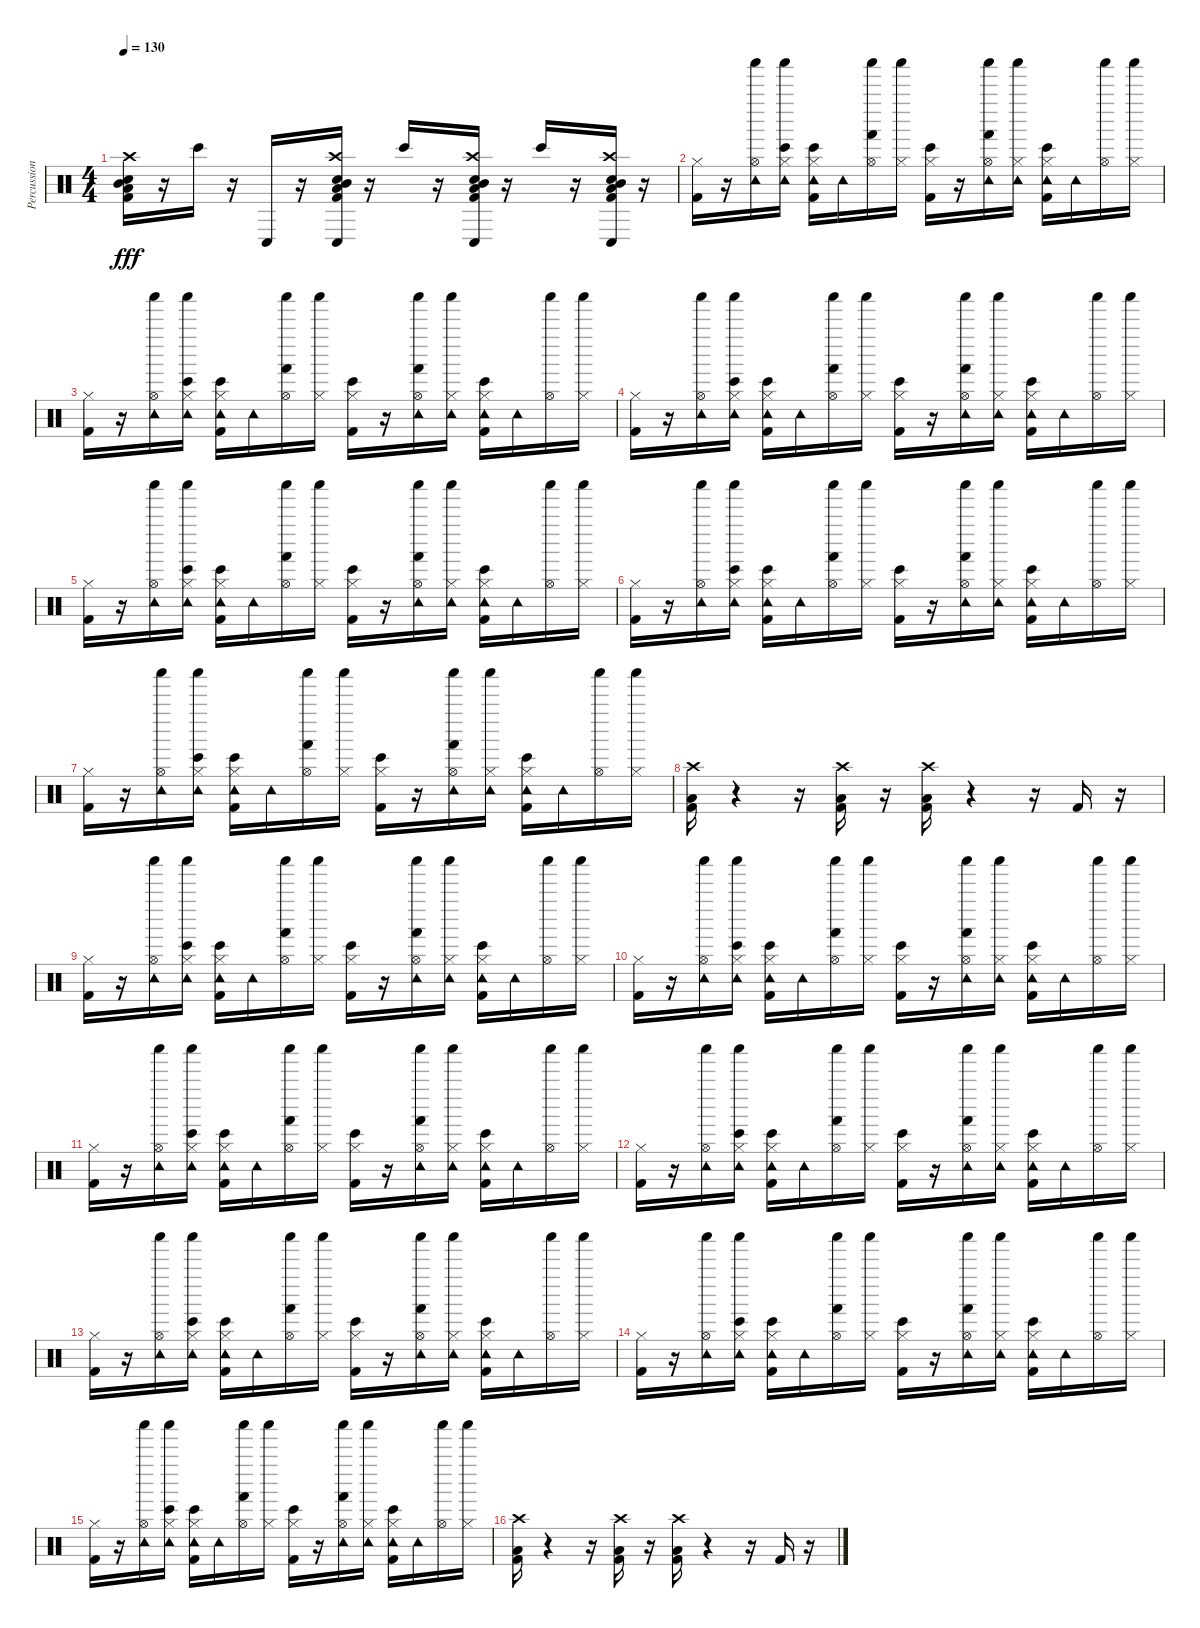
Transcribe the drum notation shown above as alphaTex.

\track ("Percussions" "Percussion") {instrument percussion}
\staff {score}
\articulation defaults
\ts (4 4)
\tempo 130
\clef neutral
\ks c
("Snare (hit) 2" "Crash high (hit)" "Mid Tom (hit)" "Low Tom (hit)" "Kick (hit) 2").16{dy fff} r.16 "Bongo High (hit)".16 r.16 "Conga low (hit)".16 r.16 ("Snare (hit) 2" "Crash high (hit)" "Conga low (hit)" "Mid Tom (hit)" "Low Tom (hit)" "Kick (hit) 2").16 r.16 "Bongo High (hit)".16 r.16 ("Snare (hit) 2" "Crash high (hit)" "Conga low (hit)" "Mid Tom (hit)" "Low Tom (hit)" "Kick (hit) 2").16 r.16 "Bongo High (hit)".16 r.16 ("Snare (hit) 2" "Crash high (hit)" "Conga low (hit)" "Mid Tom (hit)" "Kick (hit) 2" "Low Tom (hit)").16 r.16 |
("Hi-Hat (closed)" "Kick (hit) 2").16 r.16 ("Hi-Hat (open)" "Tambourine (hit)" "Shaker (hit)").16 ("Tambourine (hit)" "Shaker (hit)" "Bongo High (hit)" "Hi-Hat (closed)").16 ("Hi-Hat (closed)" "Kick (hit) 2" "Tambourine (hit)" "Bongo High (hit)").16 "Tambourine (hit)".16 ("Hi-Hat (open)" "Shaker (hit)" "Hand (hit)").16 ("Shaker (hit)" "Hi-Hat (closed)").16 ("Hi-Hat (closed)" "Kick (hit) 2" "Bongo High (hit)").16 r.16 ("Hi-Hat (open)" "Tambourine (hit)" "Shaker (hit)" "Hand (hit)").16 ("Tambourine (hit)" "Shaker (hit)" "Hi-Hat (closed)").16 ("Hi-Hat (closed)" "Kick (hit) 2" "Tambourine (hit)" "Bongo High (hit)").16 "Tambourine (hit)".16 ("Hi-Hat (open)" "Shaker (hit)").16 ("Shaker (hit)" "Hi-Hat (closed)").16 |
("Hi-Hat (closed)" "Kick (hit) 2").16 r.16 ("Hi-Hat (open)" "Tambourine (hit)" "Shaker (hit)").16 ("Tambourine (hit)" "Shaker (hit)" "Bongo High (hit)" "Hi-Hat (closed)").16 ("Hi-Hat (closed)" "Kick (hit) 2" "Tambourine (hit)" "Bongo High (hit)").16 "Tambourine (hit)".16 ("Hi-Hat (open)" "Shaker (hit)" "Hand (hit)").16 ("Shaker (hit)" "Hi-Hat (closed)").16 ("Hi-Hat (closed)" "Kick (hit) 2" "Bongo High (hit)").16 r.16 ("Hi-Hat (open)" "Tambourine (hit)" "Shaker (hit)" "Hand (hit)").16 ("Tambourine (hit)" "Shaker (hit)" "Hi-Hat (closed)").16 ("Hi-Hat (closed)" "Kick (hit) 2" "Tambourine (hit)" "Bongo High (hit)").16 "Tambourine (hit)".16 ("Hi-Hat (open)" "Shaker (hit)").16 ("Shaker (hit)" "Hi-Hat (closed)").16 |
("Hi-Hat (closed)" "Kick (hit) 2").16 r.16 ("Hi-Hat (open)" "Tambourine (hit)" "Shaker (hit)").16 ("Tambourine (hit)" "Shaker (hit)" "Bongo High (hit)" "Hi-Hat (closed)").16 ("Hi-Hat (closed)" "Kick (hit) 2" "Tambourine (hit)" "Bongo High (hit)").16 "Tambourine (hit)".16 ("Hi-Hat (open)" "Shaker (hit)" "Hand (hit)").16 ("Shaker (hit)" "Hi-Hat (closed)").16 ("Hi-Hat (closed)" "Kick (hit) 2" "Bongo High (hit)").16 r.16 ("Hi-Hat (open)" "Tambourine (hit)" "Shaker (hit)" "Hand (hit)").16 ("Tambourine (hit)" "Shaker (hit)" "Hi-Hat (closed)").16 ("Hi-Hat (closed)" "Kick (hit) 2" "Tambourine (hit)" "Bongo High (hit)").16 "Tambourine (hit)".16 ("Hi-Hat (open)" "Shaker (hit)").16 ("Shaker (hit)" "Hi-Hat (closed)").16 |
("Hi-Hat (closed)" "Kick (hit) 2").16 r.16 ("Hi-Hat (open)" "Tambourine (hit)" "Shaker (hit)").16 ("Tambourine (hit)" "Shaker (hit)" "Bongo High (hit)" "Hi-Hat (closed)").16 ("Hi-Hat (closed)" "Kick (hit) 2" "Tambourine (hit)" "Bongo High (hit)").16 "Tambourine (hit)".16 ("Hi-Hat (open)" "Shaker (hit)" "Hand (hit)").16 ("Shaker (hit)" "Hi-Hat (closed)").16 ("Hi-Hat (closed)" "Kick (hit) 2" "Bongo High (hit)").16 r.16 ("Hi-Hat (open)" "Tambourine (hit)" "Shaker (hit)" "Hand (hit)").16 ("Tambourine (hit)" "Shaker (hit)" "Hi-Hat (closed)").16 ("Hi-Hat (closed)" "Kick (hit) 2" "Tambourine (hit)" "Bongo High (hit)").16 "Tambourine (hit)".16 ("Hi-Hat (open)" "Shaker (hit)").16 ("Shaker (hit)" "Hi-Hat (closed)").16 |
("Hi-Hat (closed)" "Kick (hit) 2").16 r.16 ("Hi-Hat (open)" "Tambourine (hit)" "Shaker (hit)").16 ("Tambourine (hit)" "Shaker (hit)" "Bongo High (hit)" "Hi-Hat (closed)").16 ("Hi-Hat (closed)" "Kick (hit) 2" "Tambourine (hit)" "Bongo High (hit)").16 "Tambourine (hit)".16 ("Hi-Hat (open)" "Shaker (hit)" "Hand (hit)").16 ("Shaker (hit)" "Hi-Hat (closed)").16 ("Hi-Hat (closed)" "Kick (hit) 2" "Bongo High (hit)").16 r.16 ("Hi-Hat (open)" "Tambourine (hit)" "Shaker (hit)" "Hand (hit)").16 ("Tambourine (hit)" "Shaker (hit)" "Hi-Hat (closed)").16 ("Hi-Hat (closed)" "Kick (hit) 2" "Tambourine (hit)" "Bongo High (hit)").16 "Tambourine (hit)".16 ("Hi-Hat (open)" "Shaker (hit)").16 ("Shaker (hit)" "Hi-Hat (closed)").16 |
("Hi-Hat (closed)" "Kick (hit) 2").16 r.16 ("Hi-Hat (open)" "Tambourine (hit)" "Shaker (hit)").16 ("Tambourine (hit)" "Shaker (hit)" "Bongo High (hit)" "Hi-Hat (closed)").16 ("Hi-Hat (closed)" "Kick (hit) 2" "Tambourine (hit)" "Bongo High (hit)").16 "Tambourine (hit)".16 ("Hi-Hat (open)" "Shaker (hit)" "Hand (hit)").16 ("Shaker (hit)" "Hi-Hat (closed)").16 ("Hi-Hat (closed)" "Kick (hit) 2" "Bongo High (hit)").16 r.16 ("Hi-Hat (open)" "Tambourine (hit)" "Shaker (hit)" "Hand (hit)").16 ("Tambourine (hit)" "Shaker (hit)" "Hi-Hat (closed)").16 ("Hi-Hat (closed)" "Kick (hit) 2" "Tambourine (hit)" "Bongo High (hit)").16 "Tambourine (hit)".16 ("Hi-Hat (open)" "Shaker (hit)").16 ("Shaker (hit)" "Hi-Hat (closed)").16 |
("Crash high (hit)" "Low Tom (hit)" "Kick (hit) 2").16 r.4 r.16 ("Crash high (hit)" "Low Tom (hit)" "Kick (hit) 2").16 r.16 ("Crash high (hit)" "Low Tom (hit)" "Kick (hit) 2").16 r.4 r.16 "Kick (hit) 2".16 r.16 |
("Hi-Hat (closed)" "Kick (hit) 2").16 r.16 ("Hi-Hat (open)" "Tambourine (hit)" "Shaker (hit)").16 ("Tambourine (hit)" "Shaker (hit)" "Bongo High (hit)" "Hi-Hat (closed)").16 ("Hi-Hat (closed)" "Kick (hit) 2" "Tambourine (hit)" "Bongo High (hit)").16 "Tambourine (hit)".16 ("Hi-Hat (open)" "Shaker (hit)" "Hand (hit)").16 ("Shaker (hit)" "Hi-Hat (closed)").16 ("Hi-Hat (closed)" "Kick (hit) 2" "Bongo High (hit)").16 r.16 ("Hi-Hat (open)" "Tambourine (hit)" "Shaker (hit)" "Hand (hit)").16 ("Tambourine (hit)" "Shaker (hit)" "Hi-Hat (closed)").16 ("Hi-Hat (closed)" "Kick (hit) 2" "Tambourine (hit)" "Bongo High (hit)").16 "Tambourine (hit)".16 ("Hi-Hat (open)" "Shaker (hit)").16 ("Shaker (hit)" "Hi-Hat (closed)").16 |
("Hi-Hat (closed)" "Kick (hit) 2").16 r.16 ("Hi-Hat (open)" "Tambourine (hit)" "Shaker (hit)").16 ("Tambourine (hit)" "Shaker (hit)" "Bongo High (hit)" "Hi-Hat (closed)").16 ("Hi-Hat (closed)" "Kick (hit) 2" "Tambourine (hit)" "Bongo High (hit)").16 "Tambourine (hit)".16 ("Hi-Hat (open)" "Shaker (hit)" "Hand (hit)").16 ("Shaker (hit)" "Hi-Hat (closed)").16 ("Hi-Hat (closed)" "Kick (hit) 2" "Bongo High (hit)").16 r.16 ("Hi-Hat (open)" "Tambourine (hit)" "Shaker (hit)" "Hand (hit)").16 ("Tambourine (hit)" "Shaker (hit)" "Hi-Hat (closed)").16 ("Hi-Hat (closed)" "Kick (hit) 2" "Tambourine (hit)" "Bongo High (hit)").16 "Tambourine (hit)".16 ("Hi-Hat (open)" "Shaker (hit)").16 ("Shaker (hit)" "Hi-Hat (closed)").16 |
("Hi-Hat (closed)" "Kick (hit) 2").16 r.16 ("Hi-Hat (open)" "Tambourine (hit)" "Shaker (hit)").16 ("Tambourine (hit)" "Shaker (hit)" "Bongo High (hit)" "Hi-Hat (closed)").16 ("Hi-Hat (closed)" "Kick (hit) 2" "Tambourine (hit)" "Bongo High (hit)").16 "Tambourine (hit)".16 ("Hi-Hat (open)" "Shaker (hit)" "Hand (hit)").16 ("Shaker (hit)" "Hi-Hat (closed)").16 ("Hi-Hat (closed)" "Kick (hit) 2" "Bongo High (hit)").16 r.16 ("Hi-Hat (open)" "Tambourine (hit)" "Shaker (hit)" "Hand (hit)").16 ("Tambourine (hit)" "Shaker (hit)" "Hi-Hat (closed)").16 ("Hi-Hat (closed)" "Kick (hit) 2" "Tambourine (hit)" "Bongo High (hit)").16 "Tambourine (hit)".16 ("Hi-Hat (open)" "Shaker (hit)").16 ("Shaker (hit)" "Hi-Hat (closed)").16 |
("Hi-Hat (closed)" "Kick (hit) 2").16 r.16 ("Hi-Hat (open)" "Tambourine (hit)" "Shaker (hit)").16 ("Tambourine (hit)" "Shaker (hit)" "Bongo High (hit)" "Hi-Hat (closed)").16 ("Hi-Hat (closed)" "Kick (hit) 2" "Tambourine (hit)" "Bongo High (hit)").16 "Tambourine (hit)".16 ("Hi-Hat (open)" "Shaker (hit)" "Hand (hit)").16 ("Shaker (hit)" "Hi-Hat (closed)").16 ("Hi-Hat (closed)" "Kick (hit) 2" "Bongo High (hit)").16 r.16 ("Hi-Hat (open)" "Tambourine (hit)" "Shaker (hit)" "Hand (hit)").16 ("Tambourine (hit)" "Shaker (hit)" "Hi-Hat (closed)").16 ("Hi-Hat (closed)" "Kick (hit) 2" "Tambourine (hit)" "Bongo High (hit)").16 "Tambourine (hit)".16 ("Hi-Hat (open)" "Shaker (hit)").16 ("Shaker (hit)" "Hi-Hat (closed)").16 |
("Hi-Hat (closed)" "Kick (hit) 2").16 r.16 ("Hi-Hat (open)" "Tambourine (hit)" "Shaker (hit)").16 ("Tambourine (hit)" "Shaker (hit)" "Bongo High (hit)" "Hi-Hat (closed)").16 ("Hi-Hat (closed)" "Kick (hit) 2" "Tambourine (hit)" "Bongo High (hit)").16 "Tambourine (hit)".16 ("Hi-Hat (open)" "Shaker (hit)" "Hand (hit)").16 ("Shaker (hit)" "Hi-Hat (closed)").16 ("Hi-Hat (closed)" "Kick (hit) 2" "Bongo High (hit)").16 r.16 ("Hi-Hat (open)" "Tambourine (hit)" "Shaker (hit)" "Hand (hit)").16 ("Tambourine (hit)" "Shaker (hit)" "Hi-Hat (closed)").16 ("Hi-Hat (closed)" "Kick (hit) 2" "Tambourine (hit)" "Bongo High (hit)").16 "Tambourine (hit)".16 ("Hi-Hat (open)" "Shaker (hit)").16 ("Shaker (hit)" "Hi-Hat (closed)").16 |
("Hi-Hat (closed)" "Kick (hit) 2").16 r.16 ("Hi-Hat (open)" "Tambourine (hit)" "Shaker (hit)").16 ("Tambourine (hit)" "Shaker (hit)" "Bongo High (hit)" "Hi-Hat (closed)").16 ("Hi-Hat (closed)" "Kick (hit) 2" "Tambourine (hit)" "Bongo High (hit)").16 "Tambourine (hit)".16 ("Hi-Hat (open)" "Shaker (hit)" "Hand (hit)").16 ("Shaker (hit)" "Hi-Hat (closed)").16 ("Hi-Hat (closed)" "Kick (hit) 2" "Bongo High (hit)").16 r.16 ("Hi-Hat (open)" "Tambourine (hit)" "Shaker (hit)" "Hand (hit)").16 ("Tambourine (hit)" "Shaker (hit)" "Hi-Hat (closed)").16 ("Hi-Hat (closed)" "Kick (hit) 2" "Tambourine (hit)" "Bongo High (hit)").16 "Tambourine (hit)".16 ("Hi-Hat (open)" "Shaker (hit)").16 ("Shaker (hit)" "Hi-Hat (closed)").16 |
("Hi-Hat (closed)" "Kick (hit) 2").16 r.16 ("Hi-Hat (open)" "Tambourine (hit)" "Shaker (hit)").16 ("Tambourine (hit)" "Shaker (hit)" "Bongo High (hit)" "Hi-Hat (closed)").16 ("Hi-Hat (closed)" "Kick (hit) 2" "Tambourine (hit)" "Bongo High (hit)").16 "Tambourine (hit)".16 ("Hi-Hat (open)" "Shaker (hit)" "Hand (hit)").16 ("Shaker (hit)" "Hi-Hat (closed)").16 ("Hi-Hat (closed)" "Kick (hit) 2" "Bongo High (hit)").16 r.16 ("Hi-Hat (open)" "Tambourine (hit)" "Shaker (hit)" "Hand (hit)").16 ("Tambourine (hit)" "Shaker (hit)" "Hi-Hat (closed)").16 ("Hi-Hat (closed)" "Kick (hit) 2" "Tambourine (hit)" "Bongo High (hit)").16 "Tambourine (hit)".16 ("Hi-Hat (open)" "Shaker (hit)").16 ("Shaker (hit)" "Hi-Hat (closed)").16 |
("Crash high (hit)" "Low Tom (hit)" "Kick (hit) 2").16 r.4 r.16 ("Crash high (hit)" "Low Tom (hit)" "Kick (hit) 2").16 r.16 ("Crash high (hit)" "Low Tom (hit)" "Kick (hit) 2").16 r.4 r.16 "Kick (hit) 2".16 r.16
